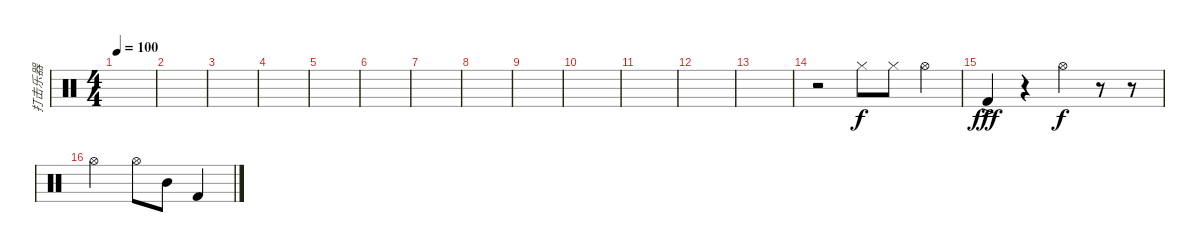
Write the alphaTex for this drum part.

\track ("打击乐器" "打击乐器") {instrument percussion}
\staff {score}
\articulation defaults
\ts (4 4)
\tempo 100
\clef neutral
\ks c
|
|
|
|
|
|
|
|
|
|
|
|
|
r.2 "Hi-Hat (closed)".8 "Hi-Hat (closed)".8 "Hi-Hat (open)".4 |
"Kick (hit) 2"{ac}.4{dy fff} r.4 "Hi-Hat (open)".4{dy f} r.8 r.8 |
"Hi-Hat (open)".2 "Hi-Hat (open)".8 "Mid Tom (hit)".8 "Kick (hit) 2".4
